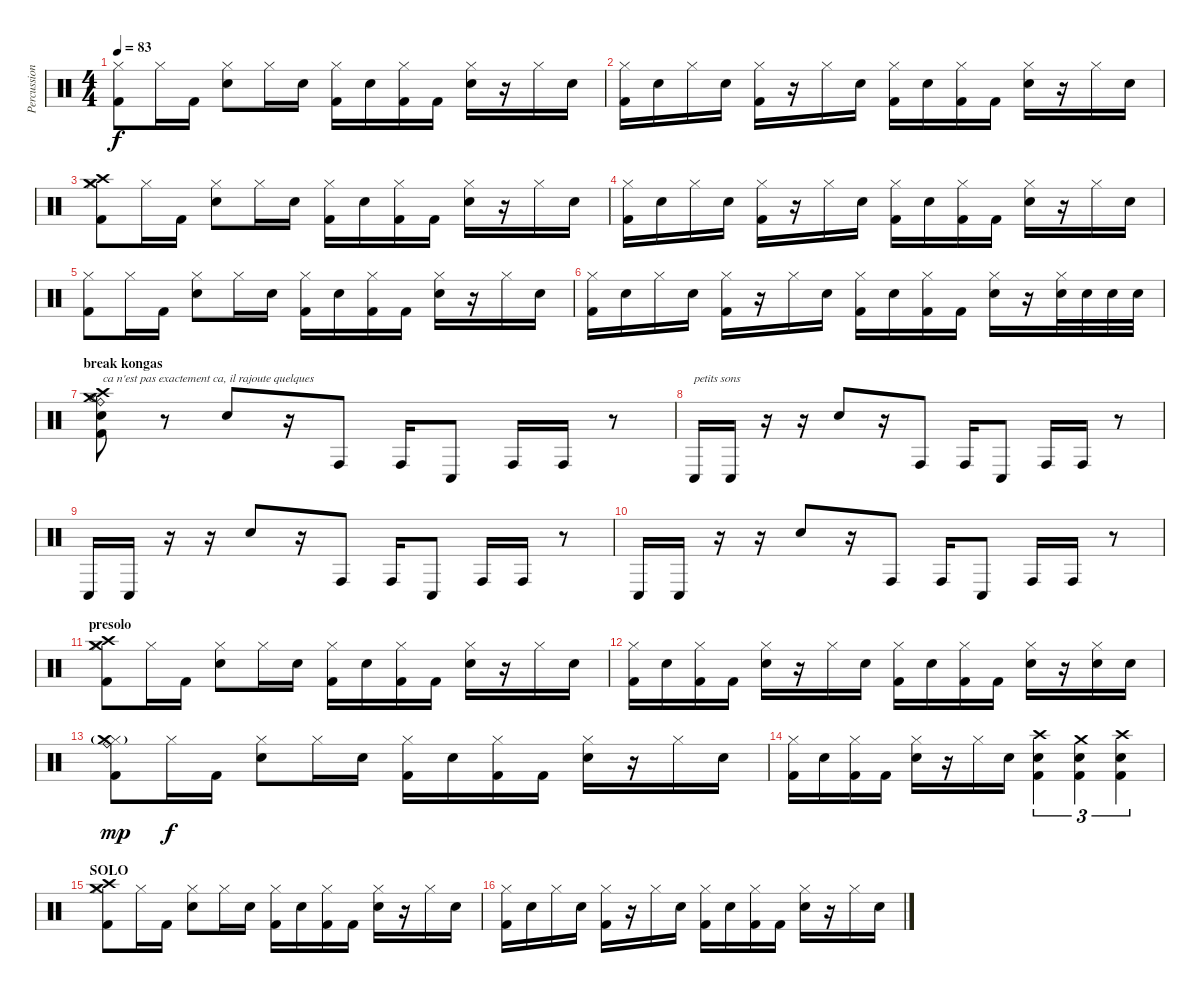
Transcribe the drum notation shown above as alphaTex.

\track ("Percussions" "Percussion") {instrument percussion}
\staff {score}
\articulation defaults
\ts (4 4)
\tempo 83
\clef neutral
\ks c
("Hi-Hat (closed)" "Kick (hit) 2").8{dy f} "Hi-Hat (closed)".16 "Kick (hit) 2".16 ("Hi-Hat (closed)" "Snare (hit) 2").8 "Hi-Hat (closed)".16 "Snare (hit) 2".16 ("Hi-Hat (closed)" "Kick (hit) 2").16 "Snare (hit) 2".16 ("Hi-Hat (closed)" "Kick (hit) 2").16 "Kick (hit) 2".16 ("Hi-Hat (closed)" "Snare (hit) 2").16 r.16 "Hi-Hat (closed)".16 "Snare (hit) 2".16 |
("Hi-Hat (closed)" "Kick (hit) 2").16 "Snare (hit) 2".16 "Hi-Hat (closed)".16 "Snare (hit) 2".16 ("Hi-Hat (closed)" "Kick (hit) 2").16 r.16 "Hi-Hat (closed)".16 "Snare (hit) 2".16 ("Hi-Hat (closed)" "Kick (hit) 2").16 "Snare (hit) 2".16 ("Hi-Hat (closed)" "Kick (hit) 2").16 "Kick (hit) 2".16 ("Hi-Hat (closed)" "Snare (hit) 2").16 r.16 "Hi-Hat (closed)".16 "Snare (hit) 2".16 |
("Hi-Hat (closed)" "Kick (hit) 2" "Crash high (hit)" "Crash medium (hit)").8 "Hi-Hat (closed)".16 "Kick (hit) 2".16 ("Hi-Hat (closed)" "Snare (hit) 2").8 "Hi-Hat (closed)".16 "Snare (hit) 2".16 ("Hi-Hat (closed)" "Kick (hit) 2").16 "Snare (hit) 2".16 ("Hi-Hat (closed)" "Kick (hit) 2").16 "Kick (hit) 2".16 ("Hi-Hat (closed)" "Snare (hit) 2").16 r.16 "Hi-Hat (closed)".16 "Snare (hit) 2".16 |
("Hi-Hat (closed)" "Kick (hit) 2").16 "Snare (hit) 2".16 "Hi-Hat (closed)".16 "Snare (hit) 2".16 ("Hi-Hat (closed)" "Kick (hit) 2").16 r.16 "Hi-Hat (closed)".16 "Snare (hit) 2".16 ("Hi-Hat (closed)" "Kick (hit) 2").16 "Snare (hit) 2".16 ("Hi-Hat (closed)" "Kick (hit) 2").16 "Kick (hit) 2".16 ("Hi-Hat (closed)" "Snare (hit) 2").16 r.16 "Hi-Hat (closed)".16 "Snare (hit) 2".16 |
("Hi-Hat (closed)" "Kick (hit) 2").8 "Hi-Hat (closed)".16 "Kick (hit) 2".16 ("Hi-Hat (closed)" "Snare (hit) 2").8 "Hi-Hat (closed)".16 "Snare (hit) 2".16 ("Hi-Hat (closed)" "Kick (hit) 2").16 "Snare (hit) 2".16 ("Hi-Hat (closed)" "Kick (hit) 2").16 "Kick (hit) 2".16 ("Hi-Hat (closed)" "Snare (hit) 2").16 r.16 "Hi-Hat (closed)".16 "Snare (hit) 2".16 |
("Hi-Hat (closed)" "Kick (hit) 2").16 "Snare (hit) 2".16 "Hi-Hat (closed)".16 "Snare (hit) 2".16 ("Hi-Hat (closed)" "Kick (hit) 2").16 r.16 "Hi-Hat (closed)".16 "Snare (hit) 2".16 ("Hi-Hat (closed)" "Kick (hit) 2").16 "Snare (hit) 2".16 ("Hi-Hat (closed)" "Kick (hit) 2").16 "Kick (hit) 2".16 ("Hi-Hat (closed)" "Snare (hit) 2").16 r.16 ("Hi-Hat (closed)" "Snare (hit) 2").32 "Snare (hit) 2".32 "Snare (hit) 2".32 "Snare (hit) 2".32 |
\section ("" "break kongas")
("Snare (hit) 2" "Kick (hit) 2" "Ride (bell)" "Hi-Hat (open)" "Crash medium (hit)" "Crash high (hit)").8{txt "ca n'est pas exactement ca, il rajoute quelques "} r.8 "Electric Snare (hit)".8 r.16 "Conga high (hit)".8 "Conga high (hit)".16 "Conga low (hit)".8 "Conga high (hit)".16 "Conga high (hit)".16 r.8 |
"Conga low (hit)".16{txt "petits sons"} "Conga low (hit)".16 r.16 r.16 "Electric Snare (hit)".8 r.16 "Conga high (hit)".8 "Conga high (hit)".16 "Conga low (hit)".8 "Conga high (hit)".16 "Conga high (hit)".16 r.8 |
"Conga low (hit)".16 "Conga low (hit)".16 r.16 r.16 "Electric Snare (hit)".8 r.16 "Conga high (hit)".8 "Conga high (hit)".16 "Conga low (hit)".8 "Conga high (hit)".16 "Conga high (hit)".16 r.8 |
"Conga low (hit)".16 "Conga low (hit)".16 r.16 r.16 "Electric Snare (hit)".8 r.16 "Conga high (hit)".8 "Conga high (hit)".16 "Conga low (hit)".8 "Conga high (hit)".16 "Conga high (hit)".16 r.8 |
\section ("" "presolo")
("Hi-Hat (closed)" "Kick (hit) 2" "Crash high (hit)" "Crash medium (hit)").8 "Hi-Hat (closed)".16 "Kick (hit) 2".16 ("Hi-Hat (closed)" "Snare (hit) 2").8 "Hi-Hat (closed)".16 "Snare (hit) 2".16 ("Hi-Hat (closed)" "Kick (hit) 2").16 "Snare (hit) 2".16 ("Hi-Hat (closed)" "Kick (hit) 2").16 "Kick (hit) 2".16 ("Hi-Hat (closed)" "Snare (hit) 2").16 r.16 "Hi-Hat (closed)".16 "Snare (hit) 2".16 |
("Hi-Hat (closed)" "Kick (hit) 2").16 "Snare (hit) 2".16 ("Hi-Hat (closed)" "Kick (hit) 2").16 "Kick (hit) 2".16 ("Hi-Hat (closed)" "Snare (hit) 2").16 r.16 "Hi-Hat (closed)".16 "Snare (hit) 2".16 ("Hi-Hat (closed)" "Kick (hit) 2").16 "Snare (hit) 2".16 ("Hi-Hat (closed)" "Kick (hit) 2").16 "Kick (hit) 2".16 ("Hi-Hat (closed)" "Snare (hit) 2").16 r.16 ("Hi-Hat (closed)" "Snare (hit) 2").16 "Snare (hit) 2".16 |
("Hi-Hat (closed)" "Kick (hit) 2" "Crash medium (hit)"{g} "Ride (bell)").8{dy mp} "Hi-Hat (closed)".16{dy f} "Kick (hit) 2".16 ("Hi-Hat (closed)" "Snare (hit) 2").8 "Hi-Hat (closed)".16 "Snare (hit) 2".16 ("Hi-Hat (closed)" "Kick (hit) 2").16 "Snare (hit) 2".16 ("Hi-Hat (closed)" "Kick (hit) 2").16 "Kick (hit) 2".16 ("Hi-Hat (closed)" "Snare (hit) 2").16 r.16 "Hi-Hat (closed)".16 "Snare (hit) 2".16 |
("Hi-Hat (closed)" "Kick (hit) 2").16 "Snare (hit) 2".16 ("Hi-Hat (closed)" "Kick (hit) 2").16 "Kick (hit) 2".16 ("Hi-Hat (closed)" "Snare (hit) 2").16 r.16 "Hi-Hat (closed)".16 "Snare (hit) 2".16 ("Crash high (hit)" "Snare (hit) 2" "Kick (hit) 2").4{tu (3 2)} ("Crash medium (hit)" "Snare (hit) 2" "Kick (hit) 2").4{tu (3 2)} ("Crash high (hit)" "Snare (hit) 2" "Kick (hit) 2").4{tu (3 2)} |
\section ("" "SOLO")
("Hi-Hat (closed)" "Kick (hit) 2" "Crash high (hit)" "Crash medium (hit)").8 "Hi-Hat (closed)".16 "Kick (hit) 2".16 ("Hi-Hat (closed)" "Snare (hit) 2").8 "Hi-Hat (closed)".16 "Snare (hit) 2".16 ("Hi-Hat (closed)" "Kick (hit) 2").16 "Snare (hit) 2".16 ("Hi-Hat (closed)" "Kick (hit) 2").16 "Kick (hit) 2".16 ("Hi-Hat (closed)" "Snare (hit) 2").16 r.16 "Hi-Hat (closed)".16 "Snare (hit) 2".16 |
("Hi-Hat (closed)" "Kick (hit) 2").16 "Snare (hit) 2".16 "Hi-Hat (closed)".16 "Snare (hit) 2".16 ("Hi-Hat (closed)" "Kick (hit) 2").16 r.16 "Hi-Hat (closed)".16 "Snare (hit) 2".16 ("Hi-Hat (closed)" "Kick (hit) 2").16 "Snare (hit) 2".16 ("Hi-Hat (closed)" "Kick (hit) 2").16 "Kick (hit) 2".16 ("Hi-Hat (closed)" "Snare (hit) 2").16 r.16 "Hi-Hat (closed)".16 "Snare (hit) 2".16
